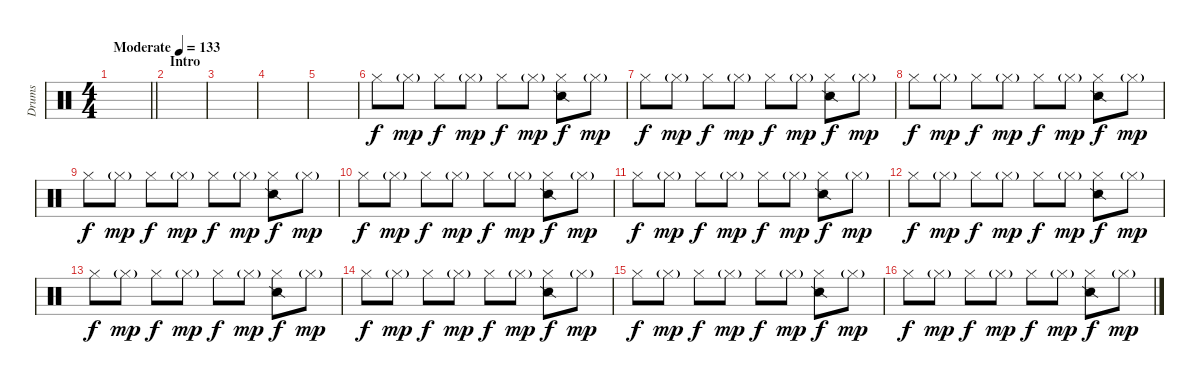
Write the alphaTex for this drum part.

\track ("Drums" "Drums") {instrument percussion}
\staff {score}
\articulation defaults
\ts (4 4)
\tempo (133 "Moderate")
\clef neutral
\barLineRight lightlight
\ks c
|
\section ("" "Intro")
|
|
|
|
"Hi-Hat (closed)".8{volume 6} "Hi-Hat (closed)"{g}.8{dy mp} "Hi-Hat (closed)".8{dy f} "Hi-Hat (closed)"{g}.8{dy mp} "Hi-Hat (closed)".8{dy f} "Hi-Hat (closed)"{g}.8{dy mp} ("Hi-Hat (closed)" "Snare (side stick) 2").8{dy f} "Hi-Hat (closed)"{g}.8{dy mp} |
"Hi-Hat (closed)".8{dy f} "Hi-Hat (closed)"{g}.8{dy mp} "Hi-Hat (closed)".8{dy f} "Hi-Hat (closed)"{g}.8{dy mp} "Hi-Hat (closed)".8{dy f} "Hi-Hat (closed)"{g}.8{dy mp} ("Hi-Hat (closed)" "Snare (side stick) 2").8{dy f} "Hi-Hat (closed)"{g}.8{dy mp} |
"Hi-Hat (closed)".8{dy f} "Hi-Hat (closed)"{g}.8{dy mp} "Hi-Hat (closed)".8{dy f} "Hi-Hat (closed)"{g}.8{dy mp} "Hi-Hat (closed)".8{dy f} "Hi-Hat (closed)"{g}.8{dy mp} ("Hi-Hat (closed)" "Snare (side stick) 2").8{dy f} "Hi-Hat (closed)"{g}.8{dy mp} |
"Hi-Hat (closed)".8{dy f} "Hi-Hat (closed)"{g}.8{dy mp} "Hi-Hat (closed)".8{dy f} "Hi-Hat (closed)"{g}.8{dy mp} "Hi-Hat (closed)".8{dy f} "Hi-Hat (closed)"{g}.8{dy mp} ("Hi-Hat (closed)" "Snare (side stick) 2").8{dy f} "Hi-Hat (closed)"{g}.8{dy mp} |
"Hi-Hat (closed)".8{dy f} "Hi-Hat (closed)"{g}.8{dy mp} "Hi-Hat (closed)".8{dy f} "Hi-Hat (closed)"{g}.8{dy mp} "Hi-Hat (closed)".8{dy f} "Hi-Hat (closed)"{g}.8{dy mp} ("Hi-Hat (closed)" "Snare (side stick) 2").8{dy f} "Hi-Hat (closed)"{g}.8{dy mp} |
"Hi-Hat (closed)".8{dy f} "Hi-Hat (closed)"{g}.8{dy mp} "Hi-Hat (closed)".8{dy f} "Hi-Hat (closed)"{g}.8{dy mp} "Hi-Hat (closed)".8{dy f} "Hi-Hat (closed)"{g}.8{dy mp} ("Hi-Hat (closed)" "Snare (side stick) 2").8{dy f} "Hi-Hat (closed)"{g}.8{dy mp} |
"Hi-Hat (closed)".8{dy f} "Hi-Hat (closed)"{g}.8{dy mp} "Hi-Hat (closed)".8{dy f} "Hi-Hat (closed)"{g}.8{dy mp} "Hi-Hat (closed)".8{dy f} "Hi-Hat (closed)"{g}.8{dy mp} ("Hi-Hat (closed)" "Snare (side stick) 2").8{dy f} "Hi-Hat (closed)"{g}.8{dy mp} |
"Hi-Hat (closed)".8{dy f} "Hi-Hat (closed)"{g}.8{dy mp} "Hi-Hat (closed)".8{dy f} "Hi-Hat (closed)"{g}.8{dy mp} "Hi-Hat (closed)".8{dy f} "Hi-Hat (closed)"{g}.8{dy mp} ("Hi-Hat (closed)" "Snare (side stick) 2").8{dy f} "Hi-Hat (closed)"{g}.8{dy mp} |
"Hi-Hat (closed)".8{dy f} "Hi-Hat (closed)"{g}.8{dy mp} "Hi-Hat (closed)".8{dy f} "Hi-Hat (closed)"{g}.8{dy mp} "Hi-Hat (closed)".8{dy f} "Hi-Hat (closed)"{g}.8{dy mp} ("Hi-Hat (closed)" "Snare (side stick) 2").8{dy f} "Hi-Hat (closed)"{g}.8{dy mp} |
"Hi-Hat (closed)".8{dy f} "Hi-Hat (closed)"{g}.8{dy mp} "Hi-Hat (closed)".8{dy f} "Hi-Hat (closed)"{g}.8{dy mp} "Hi-Hat (closed)".8{dy f} "Hi-Hat (closed)"{g}.8{dy mp} ("Hi-Hat (closed)" "Snare (side stick) 2").8{dy f} "Hi-Hat (closed)"{g}.8{dy mp} |
"Hi-Hat (closed)".8{dy f} "Hi-Hat (closed)"{g}.8{dy mp} "Hi-Hat (closed)".8{dy f} "Hi-Hat (closed)"{g}.8{dy mp} "Hi-Hat (closed)".8{dy f} "Hi-Hat (closed)"{g}.8{dy mp} ("Hi-Hat (closed)" "Snare (side stick) 2").8{dy f} "Hi-Hat (closed)"{g}.8{dy mp}
